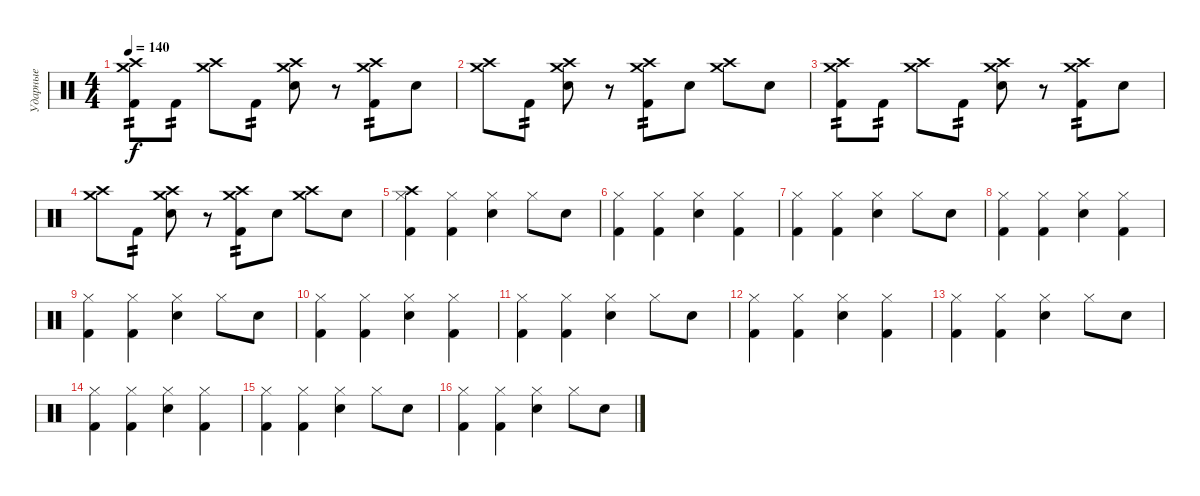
\track ("Ударные" "Ударные") {instrument percussion}
\staff {score}
\articulation defaults
\ts (4 4)
\tempo 140
\clef neutral
\ks c
("Crash high (hit)" "Crash medium (hit)" "Kick (hit) 2").8{tp 2 dy f} "Kick (hit) 2".8{tp 2} ("Crash high (hit)" "Crash medium (hit)").8 "Kick (hit) 2".8{tp 2} ("Crash high (hit)" "Crash medium (hit)" "Electric Snare (hit)").8 r.8 ("Crash high (hit)" "Crash medium (hit)" "Kick (hit) 2").8{tp 2} "Electric Snare (hit)".8 |
("Crash high (hit)" "Crash medium (hit)").8 "Kick (hit) 2".8{tp 2} ("Crash high (hit)" "Crash medium (hit)" "Electric Snare (hit)").8 r.8 ("Crash high (hit)" "Crash medium (hit)" "Kick (hit) 2").8{tp 2} "Electric Snare (hit)".8 ("Crash high (hit)" "Crash medium (hit)").8 "Electric Snare (hit)".8 |
("Crash high (hit)" "Crash medium (hit)" "Kick (hit) 2").8{tp 2} "Kick (hit) 2".8{tp 2} ("Crash high (hit)" "Crash medium (hit)").8 "Kick (hit) 2".8{tp 2} ("Crash high (hit)" "Crash medium (hit)" "Electric Snare (hit)").8 r.8 ("Crash high (hit)" "Crash medium (hit)" "Kick (hit) 2").8{tp 2} "Electric Snare (hit)".8 |
("Crash high (hit)" "Crash medium (hit)").8 "Kick (hit) 2".8{tp 2} ("Crash high (hit)" "Crash medium (hit)" "Electric Snare (hit)").8 r.8 ("Crash high (hit)" "Crash medium (hit)" "Kick (hit) 2").8{tp 2} "Electric Snare (hit)".8 ("Crash high (hit)" "Crash medium (hit)").8 "Electric Snare (hit)".8 |
("Hi-Hat (closed)" "Crash high (hit)" "Kick (hit) 2").4 ("Hi-Hat (closed)" "Kick (hit) 2").4 ("Hi-Hat (closed)" "Electric Snare (hit)").4 "Hi-Hat (closed)".8 "Electric Snare (hit)".8 |
("Hi-Hat (closed)" "Kick (hit) 2").4 ("Hi-Hat (closed)" "Kick (hit) 2").4 ("Hi-Hat (closed)" "Electric Snare (hit)").4 ("Hi-Hat (closed)" "Kick (hit) 2").4 |
("Hi-Hat (closed)" "Kick (hit) 2").4 ("Hi-Hat (closed)" "Kick (hit) 2").4 ("Hi-Hat (closed)" "Electric Snare (hit)").4 "Hi-Hat (closed)".8 "Electric Snare (hit)".8 |
("Hi-Hat (closed)" "Kick (hit) 2").4 ("Hi-Hat (closed)" "Kick (hit) 2").4 ("Hi-Hat (closed)" "Electric Snare (hit)").4 ("Hi-Hat (closed)" "Kick (hit) 2").4 |
("Hi-Hat (closed)" "Kick (hit) 2").4 ("Hi-Hat (closed)" "Kick (hit) 2").4 ("Hi-Hat (closed)" "Electric Snare (hit)").4 "Hi-Hat (closed)".8 "Electric Snare (hit)".8 |
("Hi-Hat (closed)" "Kick (hit) 2").4 ("Hi-Hat (closed)" "Kick (hit) 2").4 ("Hi-Hat (closed)" "Electric Snare (hit)").4 ("Hi-Hat (closed)" "Kick (hit) 2").4 |
("Hi-Hat (closed)" "Kick (hit) 2").4 ("Hi-Hat (closed)" "Kick (hit) 2").4 ("Hi-Hat (closed)" "Electric Snare (hit)").4 "Hi-Hat (closed)".8 "Electric Snare (hit)".8 |
("Hi-Hat (closed)" "Kick (hit) 2").4 ("Hi-Hat (closed)" "Kick (hit) 2").4 ("Hi-Hat (closed)" "Electric Snare (hit)").4 ("Hi-Hat (closed)" "Kick (hit) 2").4 |
("Hi-Hat (closed)" "Kick (hit) 2").4 ("Hi-Hat (closed)" "Kick (hit) 2").4 ("Hi-Hat (closed)" "Electric Snare (hit)").4 "Hi-Hat (closed)".8 "Electric Snare (hit)".8 |
("Hi-Hat (closed)" "Kick (hit) 2").4 ("Hi-Hat (closed)" "Kick (hit) 2").4 ("Hi-Hat (closed)" "Electric Snare (hit)").4 ("Hi-Hat (closed)" "Kick (hit) 2").4 |
("Hi-Hat (closed)" "Kick (hit) 2").4 ("Hi-Hat (closed)" "Kick (hit) 2").4 ("Hi-Hat (closed)" "Electric Snare (hit)").4 "Hi-Hat (closed)".8 "Electric Snare (hit)".8 |
("Hi-Hat (closed)" "Kick (hit) 2").4 ("Hi-Hat (closed)" "Kick (hit) 2").4 ("Hi-Hat (closed)" "Electric Snare (hit)").4 "Hi-Hat (closed)".8 "Electric Snare (hit)".8
